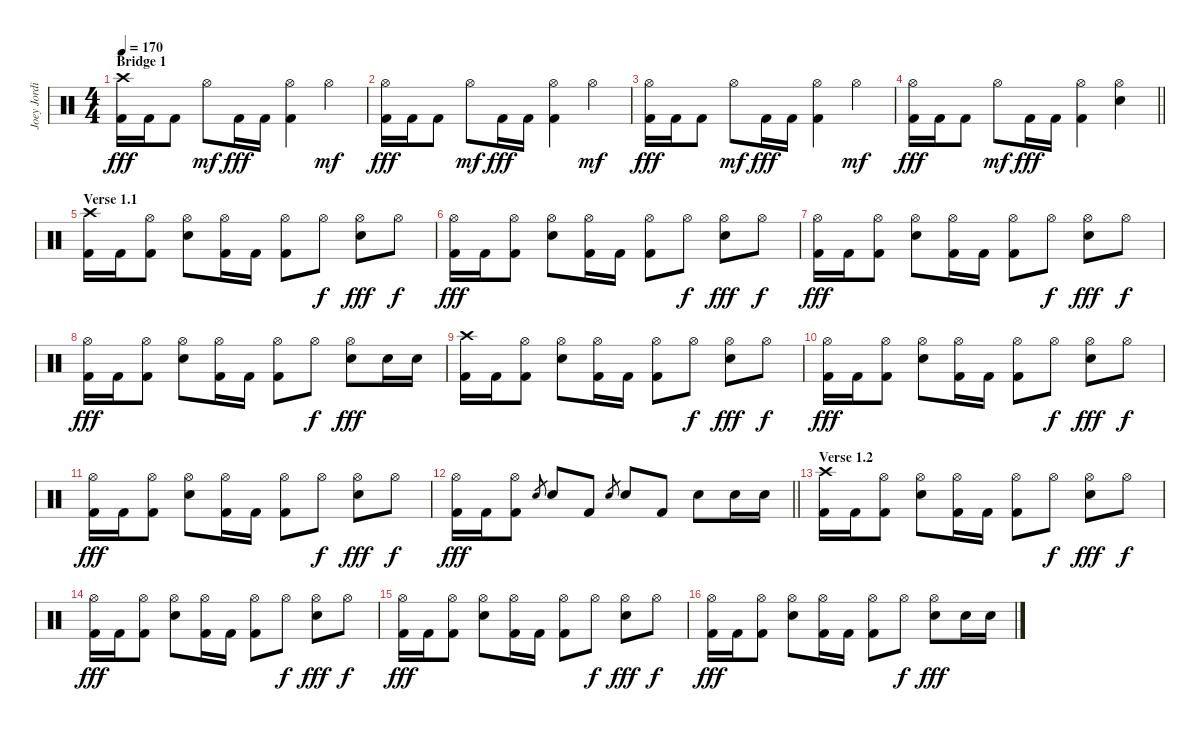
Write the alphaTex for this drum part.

\track ("Joey Jordison" "Joey Jordi") {instrument percussion}
\staff {score}
\articulation defaults
\ts (4 4)
\section ("" "Bridge 1")
\tempo 170
\clef neutral
\ks c
("Crash high (hit)" "Kick (hit) 2").16{dy fff} "Kick (hit) 2".16 "Kick (hit) 2".8 "Hi-Hat (open)".8{dy mf} "Kick (hit) 2".16{dy fff} "Kick (hit) 2".16 ("Hi-Hat (open)" "Kick (hit) 2").4 "Hi-Hat (open)".4{dy mf} |
("Hi-Hat (open)" "Kick (hit) 2").16{dy fff} "Kick (hit) 2".16 "Kick (hit) 2".8 "Hi-Hat (open)".8{dy mf} "Kick (hit) 2".16{dy fff} "Kick (hit) 2".16 ("Hi-Hat (open)" "Kick (hit) 2").4 "Hi-Hat (open)".4{dy mf} |
("Hi-Hat (open)" "Kick (hit) 2").16{dy fff} "Kick (hit) 2".16 "Kick (hit) 2".8 "Hi-Hat (open)".8{dy mf} "Kick (hit) 2".16{dy fff} "Kick (hit) 2".16 ("Hi-Hat (open)" "Kick (hit) 2").4 "Hi-Hat (open)".4{dy mf} |
\barLineRight lightlight
("Hi-Hat (open)" "Kick (hit) 2").16{dy fff} "Kick (hit) 2".16 "Kick (hit) 2".8 "Hi-Hat (open)".8{dy mf} "Kick (hit) 2".16{dy fff} "Kick (hit) 2".16 ("Hi-Hat (open)" "Kick (hit) 2").4 ("Hi-Hat (open)" "Electric Snare (hit)").4 |
\section ("" "Verse 1.1")
("Crash high (hit)" "Kick (hit) 2").16 "Kick (hit) 2".16 ("Hi-Hat (open)" "Kick (hit) 2").8 ("Hi-Hat (open)" "Electric Snare (hit)").8 ("Hi-Hat (open)" "Kick (hit) 2").16 "Kick (hit) 2".16 ("Hi-Hat (open)" "Kick (hit) 2").8 "Hi-Hat (open)".8{dy f} ("Hi-Hat (open)" "Electric Snare (hit)").8{dy fff} "Hi-Hat (open)".8{dy f} |
("Hi-Hat (open)" "Kick (hit) 2").16{dy fff} "Kick (hit) 2".16 ("Hi-Hat (open)" "Kick (hit) 2").8 ("Hi-Hat (open)" "Electric Snare (hit)").8 ("Hi-Hat (open)" "Kick (hit) 2").16 "Kick (hit) 2".16 ("Hi-Hat (open)" "Kick (hit) 2").8 "Hi-Hat (open)".8{dy f} ("Hi-Hat (open)" "Electric Snare (hit)").8{dy fff} "Hi-Hat (open)".8{dy f} |
("Hi-Hat (open)" "Kick (hit) 2").16{dy fff} "Kick (hit) 2".16 ("Hi-Hat (open)" "Kick (hit) 2").8 ("Hi-Hat (open)" "Electric Snare (hit)").8 ("Hi-Hat (open)" "Kick (hit) 2").16 "Kick (hit) 2".16 ("Hi-Hat (open)" "Kick (hit) 2").8 "Hi-Hat (open)".8{dy f} ("Hi-Hat (open)" "Electric Snare (hit)").8{dy fff} "Hi-Hat (open)".8{dy f} |
("Hi-Hat (open)" "Kick (hit) 2").16{dy fff} "Kick (hit) 2".16 ("Hi-Hat (open)" "Kick (hit) 2").8 ("Hi-Hat (open)" "Electric Snare (hit)").8 ("Hi-Hat (open)" "Kick (hit) 2").16 "Kick (hit) 2".16 ("Hi-Hat (open)" "Kick (hit) 2").8 "Hi-Hat (open)".8{dy f} ("Hi-Hat (open)" "Electric Snare (hit)").8{dy fff} "Electric Snare (hit)".16 "Electric Snare (hit)".16 |
("Crash high (hit)" "Kick (hit) 2").16 "Kick (hit) 2".16 ("Hi-Hat (open)" "Kick (hit) 2").8 ("Hi-Hat (open)" "Electric Snare (hit)").8 ("Hi-Hat (open)" "Kick (hit) 2").16 "Kick (hit) 2".16 ("Hi-Hat (open)" "Kick (hit) 2").8 "Hi-Hat (open)".8{dy f} ("Hi-Hat (open)" "Electric Snare (hit)").8{dy fff} "Hi-Hat (open)".8{dy f} |
("Hi-Hat (open)" "Kick (hit) 2").16{dy fff} "Kick (hit) 2".16 ("Hi-Hat (open)" "Kick (hit) 2").8 ("Hi-Hat (open)" "Electric Snare (hit)").8 ("Hi-Hat (open)" "Kick (hit) 2").16 "Kick (hit) 2".16 ("Hi-Hat (open)" "Kick (hit) 2").8 "Hi-Hat (open)".8{dy f} ("Hi-Hat (open)" "Electric Snare (hit)").8{dy fff} "Hi-Hat (open)".8{dy f} |
("Hi-Hat (open)" "Kick (hit) 2").16{dy fff} "Kick (hit) 2".16 ("Hi-Hat (open)" "Kick (hit) 2").8 ("Hi-Hat (open)" "Electric Snare (hit)").8 ("Hi-Hat (open)" "Kick (hit) 2").16 "Kick (hit) 2".16 ("Hi-Hat (open)" "Kick (hit) 2").8 "Hi-Hat (open)".8{dy f} ("Hi-Hat (open)" "Electric Snare (hit)").8{dy fff} "Hi-Hat (open)".8{dy f} |
\barLineRight lightlight
("Hi-Hat (open)" "Kick (hit) 2").16{dy fff} "Kick (hit) 2".16 ("Hi-Hat (open)" "Kick (hit) 2").8 "Electric Snare (hit)".8{gr} "Electric Snare (hit)".8 "Kick (hit) 2".8 "Electric Snare (hit)".8{gr} "Electric Snare (hit)".8 "Kick (hit) 2".8 "Electric Snare (hit)".8 "Electric Snare (hit)".16 "Electric Snare (hit)".16 |
\section ("" "Verse 1.2")
("Crash high (hit)" "Kick (hit) 2").16 "Kick (hit) 2".16 ("Hi-Hat (open)" "Kick (hit) 2").8 ("Hi-Hat (open)" "Electric Snare (hit)").8 ("Hi-Hat (open)" "Kick (hit) 2").16 "Kick (hit) 2".16 ("Hi-Hat (open)" "Kick (hit) 2").8 "Hi-Hat (open)".8{dy f} ("Hi-Hat (open)" "Electric Snare (hit)").8{dy fff} "Hi-Hat (open)".8{dy f} |
("Hi-Hat (open)" "Kick (hit) 2").16{dy fff} "Kick (hit) 2".16 ("Hi-Hat (open)" "Kick (hit) 2").8 ("Hi-Hat (open)" "Electric Snare (hit)").8 ("Hi-Hat (open)" "Kick (hit) 2").16 "Kick (hit) 2".16 ("Hi-Hat (open)" "Kick (hit) 2").8 "Hi-Hat (open)".8{dy f} ("Hi-Hat (open)" "Electric Snare (hit)").8{dy fff} "Hi-Hat (open)".8{dy f} |
("Hi-Hat (open)" "Kick (hit) 2").16{dy fff} "Kick (hit) 2".16 ("Hi-Hat (open)" "Kick (hit) 2").8 ("Hi-Hat (open)" "Electric Snare (hit)").8 ("Hi-Hat (open)" "Kick (hit) 2").16 "Kick (hit) 2".16 ("Hi-Hat (open)" "Kick (hit) 2").8 "Hi-Hat (open)".8{dy f} ("Hi-Hat (open)" "Electric Snare (hit)").8{dy fff} "Hi-Hat (open)".8{dy f} |
("Hi-Hat (open)" "Kick (hit) 2").16{dy fff} "Kick (hit) 2".16 ("Hi-Hat (open)" "Kick (hit) 2").8 ("Hi-Hat (open)" "Electric Snare (hit)").8 ("Hi-Hat (open)" "Kick (hit) 2").16 "Kick (hit) 2".16 ("Hi-Hat (open)" "Kick (hit) 2").8 "Hi-Hat (open)".8{dy f} ("Hi-Hat (open)" "Electric Snare (hit)").8{dy fff} "Electric Snare (hit)".16 "Electric Snare (hit)".16
